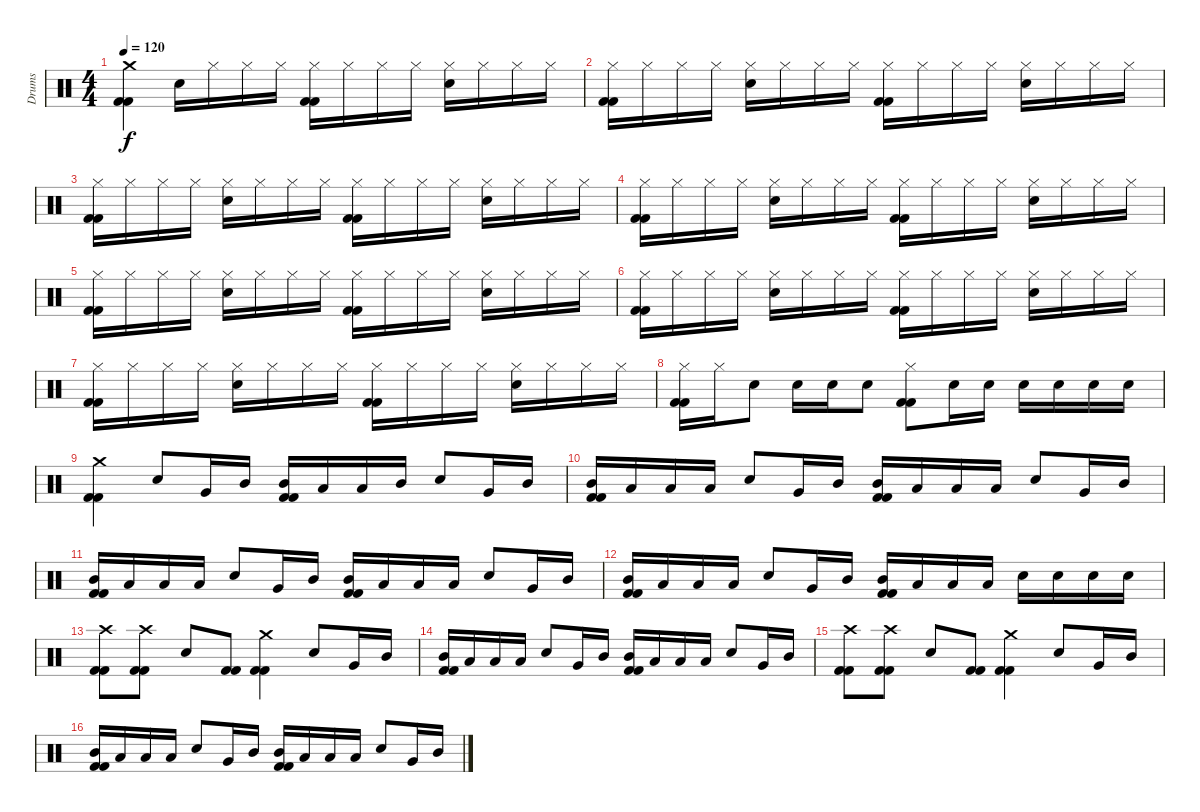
\track ("Drums" "Drums") {instrument percussion}
\staff {score}
\articulation defaults
\ts (4 4)
\tempo 120
\clef neutral
\ks c
("Crash medium (hit)" "Kick (hit) 2" "Kick (hit) 2").4{dy f} "Electric Snare (hit)".16 "Hi-Hat (closed)".16 "Hi-Hat (closed)".16 "Hi-Hat (closed)".16 ("Hi-Hat (closed)" "Kick (hit) 2" "Kick (hit) 2").16 "Hi-Hat (closed)".16 "Hi-Hat (closed)".16 "Hi-Hat (closed)".16 ("Hi-Hat (closed)" "Electric Snare (hit)").16 "Hi-Hat (closed)".16 "Hi-Hat (closed)".16 "Hi-Hat (closed)".16 |
("Hi-Hat (closed)" "Kick (hit) 2" "Kick (hit) 2").16 "Hi-Hat (closed)".16 "Hi-Hat (closed)".16 "Hi-Hat (closed)".16 ("Hi-Hat (closed)" "Electric Snare (hit)").16 "Hi-Hat (closed)".16 "Hi-Hat (closed)".16 "Hi-Hat (closed)".16 ("Hi-Hat (closed)" "Kick (hit) 2" "Kick (hit) 2").16 "Hi-Hat (closed)".16 "Hi-Hat (closed)".16 "Hi-Hat (closed)".16 ("Hi-Hat (closed)" "Electric Snare (hit)").16 "Hi-Hat (closed)".16 "Hi-Hat (closed)".16 "Hi-Hat (closed)".16 |
("Hi-Hat (closed)" "Kick (hit) 2" "Kick (hit) 2").16 "Hi-Hat (closed)".16 "Hi-Hat (closed)".16 "Hi-Hat (closed)".16 ("Hi-Hat (closed)" "Electric Snare (hit)").16 "Hi-Hat (closed)".16 "Hi-Hat (closed)".16 "Hi-Hat (closed)".16 ("Hi-Hat (closed)" "Kick (hit) 2" "Kick (hit) 2").16 "Hi-Hat (closed)".16 "Hi-Hat (closed)".16 "Hi-Hat (closed)".16 ("Hi-Hat (closed)" "Electric Snare (hit)").16 "Hi-Hat (closed)".16 "Hi-Hat (closed)".16 "Hi-Hat (closed)".16 |
("Hi-Hat (closed)" "Kick (hit) 2" "Kick (hit) 2").16 "Hi-Hat (closed)".16 "Hi-Hat (closed)".16 "Hi-Hat (closed)".16 ("Hi-Hat (closed)" "Electric Snare (hit)").16 "Hi-Hat (closed)".16 "Hi-Hat (closed)".16 "Hi-Hat (closed)".16 ("Hi-Hat (closed)" "Kick (hit) 2" "Kick (hit) 2").16 "Hi-Hat (closed)".16 "Hi-Hat (closed)".16 "Hi-Hat (closed)".16 ("Hi-Hat (closed)" "Electric Snare (hit)").16 "Hi-Hat (closed)".16 "Hi-Hat (closed)".16 "Hi-Hat (closed)".16 |
("Hi-Hat (closed)" "Kick (hit) 2" "Kick (hit) 2").16 "Hi-Hat (closed)".16 "Hi-Hat (closed)".16 "Hi-Hat (closed)".16 ("Hi-Hat (closed)" "Electric Snare (hit)").16 "Hi-Hat (closed)".16 "Hi-Hat (closed)".16 "Hi-Hat (closed)".16 ("Hi-Hat (closed)" "Kick (hit) 2" "Kick (hit) 2").16 "Hi-Hat (closed)".16 "Hi-Hat (closed)".16 "Hi-Hat (closed)".16 ("Hi-Hat (closed)" "Electric Snare (hit)").16 "Hi-Hat (closed)".16 "Hi-Hat (closed)".16 "Hi-Hat (closed)".16 |
("Hi-Hat (closed)" "Kick (hit) 2" "Kick (hit) 2").16 "Hi-Hat (closed)".16 "Hi-Hat (closed)".16 "Hi-Hat (closed)".16 ("Hi-Hat (closed)" "Electric Snare (hit)").16 "Hi-Hat (closed)".16 "Hi-Hat (closed)".16 "Hi-Hat (closed)".16 ("Hi-Hat (closed)" "Kick (hit) 2" "Kick (hit) 2").16 "Hi-Hat (closed)".16 "Hi-Hat (closed)".16 "Hi-Hat (closed)".16 ("Hi-Hat (closed)" "Electric Snare (hit)").16 "Hi-Hat (closed)".16 "Hi-Hat (closed)".16 "Hi-Hat (closed)".16 |
("Hi-Hat (closed)" "Kick (hit) 2" "Kick (hit) 2").16 "Hi-Hat (closed)".16 "Hi-Hat (closed)".16 "Hi-Hat (closed)".16 ("Hi-Hat (closed)" "Electric Snare (hit)").16 "Hi-Hat (closed)".16 "Hi-Hat (closed)".16 "Hi-Hat (closed)".16 ("Hi-Hat (closed)" "Kick (hit) 2" "Kick (hit) 2").16 "Hi-Hat (closed)".16 "Hi-Hat (closed)".16 "Hi-Hat (closed)".16 ("Hi-Hat (closed)" "Electric Snare (hit)").16 "Hi-Hat (closed)".16 "Hi-Hat (closed)".16 "Hi-Hat (closed)".16 |
("Hi-Hat (closed)" "Kick (hit) 2" "Kick (hit) 2").16 "Hi-Hat (closed)".16 "Electric Snare (hit)".8 "Electric Snare (hit)".16 "Electric Snare (hit)".16 "Electric Snare (hit)".8 ("Hi-Hat (closed)" "Kick (hit) 2" "Kick (hit) 2").8 "Electric Snare (hit)".16 "Electric Snare (hit)".16 "Electric Snare (hit)".16 "Electric Snare (hit)".16 "Electric Snare (hit)".16 "Electric Snare (hit)".16 |
("Crash medium (hit)" "Kick (hit) 2" "Kick (hit) 2").4 "Electric Snare (hit)".8 "Very Low Tom (hit)".16 "Mid Tom (hit)".16 ("Mid Tom (hit)" "Kick (hit) 2" "Kick (hit) 2").16 "Low Tom (hit)".16 "Low Tom (hit)".16 "Mid Tom (hit)".16 "Electric Snare (hit)".8 "Very Low Tom (hit)".16 "Mid Tom (hit)".16 |
("Mid Tom (hit)" "Kick (hit) 2" "Kick (hit) 2").16 "Low Tom (hit)".16 "Low Tom (hit)".16 "Low Tom (hit)".16 "Electric Snare (hit)".8 "Very Low Tom (hit)".16 "Mid Tom (hit)".16 ("Mid Tom (hit)" "Kick (hit) 2" "Kick (hit) 2").16 "Low Tom (hit)".16 "Low Tom (hit)".16 "Low Tom (hit)".16 "Electric Snare (hit)".8 "Very Low Tom (hit)".16 "Mid Tom (hit)".16 |
("Mid Tom (hit)" "Kick (hit) 2" "Kick (hit) 2").16 "Low Tom (hit)".16 "Low Tom (hit)".16 "Low Tom (hit)".16 "Electric Snare (hit)".8 "Very Low Tom (hit)".16 "Mid Tom (hit)".16 ("Mid Tom (hit)" "Kick (hit) 2" "Kick (hit) 2").16 "Low Tom (hit)".16 "Low Tom (hit)".16 "Low Tom (hit)".16 "Electric Snare (hit)".8 "Very Low Tom (hit)".16 "Mid Tom (hit)".16 |
("Mid Tom (hit)" "Kick (hit) 2" "Kick (hit) 2").16 "Low Tom (hit)".16 "Low Tom (hit)".16 "Low Tom (hit)".16 "Electric Snare (hit)".8 "Very Low Tom (hit)".16 "Mid Tom (hit)".16 ("Mid Tom (hit)" "Kick (hit) 2" "Kick (hit) 2").16 "Low Tom (hit)".16 "Low Tom (hit)".16 "Low Tom (hit)".16 "Electric Snare (hit)".16 "Electric Snare (hit)".16 "Electric Snare (hit)".16 "Electric Snare (hit)".16 |
("Crash high (hit)" "Kick (hit) 2" "Kick (hit) 2").8 ("Crash high (hit)" "Kick (hit) 2" "Kick (hit) 2").8 "Electric Snare (hit)".8 ("Kick (hit) 2" "Kick (hit) 2").8 ("Crash medium (hit)" "Kick (hit) 2" "Kick (hit) 2").4 "Electric Snare (hit)".8 "Very Low Tom (hit)".16 "Mid Tom (hit)".16 |
("Mid Tom (hit)" "Kick (hit) 2" "Kick (hit) 2").16 "Low Tom (hit)".16 "Low Tom (hit)".16 "Low Tom (hit)".16 "Electric Snare (hit)".8 "Very Low Tom (hit)".16 "Mid Tom (hit)".16 ("Mid Tom (hit)" "Kick (hit) 2" "Kick (hit) 2").16 "Low Tom (hit)".16 "Low Tom (hit)".16 "Low Tom (hit)".16 "Electric Snare (hit)".8 "Very Low Tom (hit)".16 "Mid Tom (hit)".16 |
("Crash high (hit)" "Kick (hit) 2" "Kick (hit) 2").8 ("Crash high (hit)" "Kick (hit) 2" "Kick (hit) 2").8 "Electric Snare (hit)".8 ("Kick (hit) 2" "Kick (hit) 2").8 ("Crash medium (hit)" "Kick (hit) 2" "Kick (hit) 2").4 "Electric Snare (hit)".8 "Very Low Tom (hit)".16 "Mid Tom (hit)".16 |
("Mid Tom (hit)" "Kick (hit) 2" "Kick (hit) 2").16 "Low Tom (hit)".16 "Low Tom (hit)".16 "Low Tom (hit)".16 "Electric Snare (hit)".8 "Very Low Tom (hit)".16 "Mid Tom (hit)".16 ("Mid Tom (hit)" "Kick (hit) 2" "Kick (hit) 2").16 "Low Tom (hit)".16 "Low Tom (hit)".16 "Low Tom (hit)".16 "Electric Snare (hit)".8 "Very Low Tom (hit)".16 "Mid Tom (hit)".16
